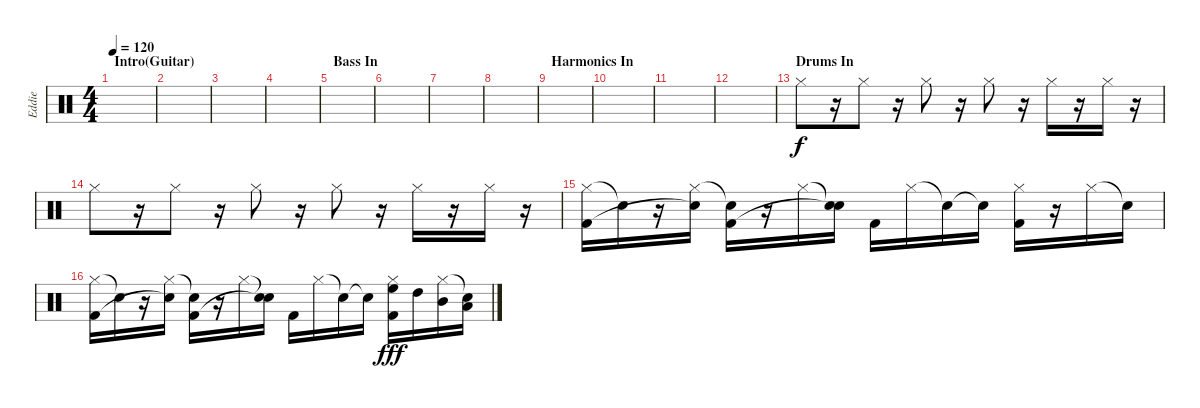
\track ("Eddie" "Eddie") {instrument percussion}
\staff {score}
\articulation defaults
\ts (4 4)
\section ("" "Intro(Guitar)")
\tempo 120
\clef neutral
\ks c
|
|
|
|
\section ("" "Bass In")
|
|
|
|
\section ("" "Harmonics In")
|
|
|
|
\section ("" "Drums In")
"Hi-Hat (closed)".8 r.16 "Hi-Hat (closed)".8 r.16 "Hi-Hat (closed)".8 r.16 "Hi-Hat (closed)".8 r.16 "Hi-Hat (closed)".16 r.16 "Hi-Hat (closed)".16 r.16 |
"Hi-Hat (closed)".8 r.16 "Hi-Hat (closed)".8 r.16 "Hi-Hat (closed)".8 r.16 "Hi-Hat (closed)".8 r.16 "Hi-Hat (closed)".16 r.16 "Hi-Hat (closed)".16 r.16 |
("Hi-Hat (closed)" "Kick (hit) 2").16 "Snare (hit)"{t}.16 r.16 ("Hi-Hat (closed)" "Snare (hit)"{t}).16 ("Snare (hit)"{t} "Kick (hit) 2").16 r.16 "Hi-Hat (closed)".16 ("Snare (hit)"{t} "Snare (hit)"{t}).16 "Kick (hit) 2".16 "Hi-Hat (closed)".16 "Snare (hit)"{t}.16 "Snare (hit)"{t}.16 ("Hi-Hat (closed)" "Kick (hit) 2").16 r.16 "Hi-Hat (closed)".16 "Snare (hit)"{t}.16 |
("Hi-Hat (closed)" "Kick (hit) 2").16 "Snare (hit)"{t}.16 r.16 ("Hi-Hat (closed)" "Snare (hit)"{t}).16 ("Snare (hit)"{t} "Kick (hit) 2").16 r.16 "Hi-Hat (closed)".16 ("Snare (hit)"{t} "Snare (hit)"{t}).16 "Kick (hit) 2".16 "Hi-Hat (closed)".16 "Snare (hit)"{t}.16 "Snare (hit)"{t}.16 ("High Floor Tom (hit)" "Hi-Hat (closed)" "Kick (hit) 2").16{dy fff} "High Tom (hit)".16 ("Mid Tom (hit)" "Hi-Hat (closed)").16 ("Low Tom (hit)" "Snare (hit)"{t}).16
